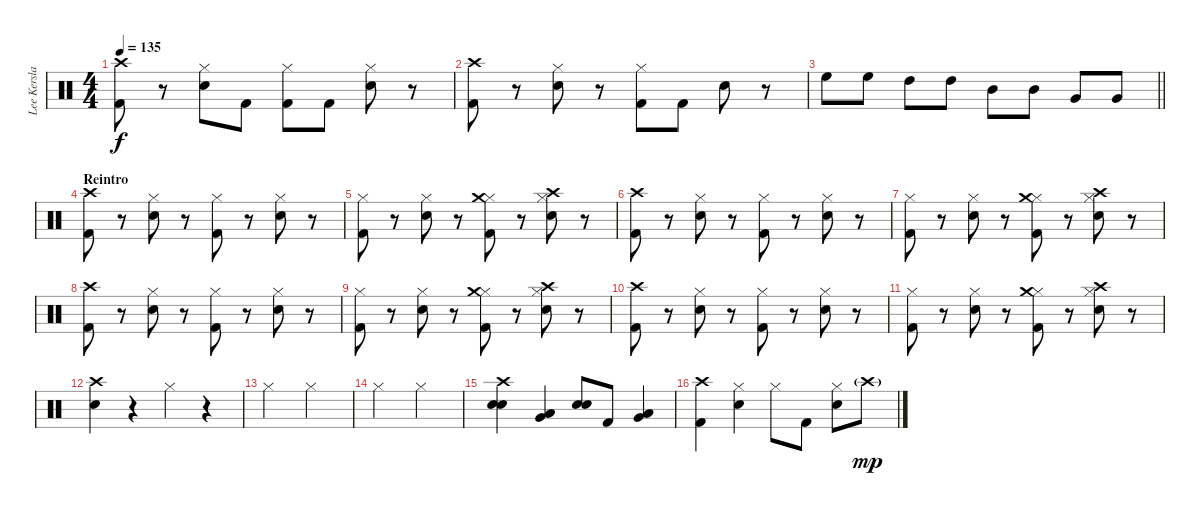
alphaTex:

\track ("Lee Kerslake" "Lee Kersla") {instrument percussion}
\staff {score}
\articulation defaults
\ts (4 4)
\tempo 135
\clef neutral
\ks c
("Kick (hit) 2" "Crash high (hit)").8{dy f} r.8 ("Hi-Hat (closed)" "Snare (hit) 2").8 "Kick (hit) 2".8 ("Hi-Hat (closed)" "Kick (hit) 2").8 "Kick (hit) 2".8 ("Hi-Hat (closed)" "Snare (hit) 2").8 r.8 |
("Kick (hit) 2" "Crash high (hit)").8 r.8 ("Hi-Hat (closed)" "Snare (hit) 2").8 r.8 ("Hi-Hat (closed)" "Kick (hit) 2").8 "Kick (hit) 2".8 "Snare (hit) 2".8 r.8 |
\barLineRight lightlight "High Floor Tom (hit)".8 "High Floor Tom (hit)".8 "High Tom (hit)".8 "High Tom (hit)".8 "Mid Tom (hit)".8 "Mid Tom (hit)".8 "Very Low Tom (hit)".8 "Very Low Tom (hit)".8
|
\section ("" "Reintro")
("Crash high (hit)" "Kick (hit) 2").8 r.8 ("Hi-Hat (closed)" "Snare (hit) 2").8 r.8 ("Hi-Hat (closed)" "Kick (hit) 2").8 r.8 ("Hi-Hat (closed)" "Snare (hit) 2").8 r.8 |
("Hi-Hat (closed)" "Kick (hit) 2").8 r.8 ("Hi-Hat (closed)" "Snare (hit) 2").8 r.8 ("Hi-Hat (closed)" "Kick (hit) 2" "Crash medium (hit)").8 r.8 ("Hi-Hat (closed)" "Snare (hit) 2" "Crash high (hit)").8 r.8 |
("Crash high (hit)" "Kick (hit) 2").8 r.8 ("Hi-Hat (closed)" "Snare (hit) 2").8 r.8 ("Hi-Hat (closed)" "Kick (hit) 2").8 r.8 ("Hi-Hat (closed)" "Snare (hit) 2").8 r.8 |
("Hi-Hat (closed)" "Kick (hit) 2").8 r.8 ("Hi-Hat (closed)" "Snare (hit) 2").8 r.8 ("Hi-Hat (closed)" "Kick (hit) 2" "Crash medium (hit)").8 r.8 ("Hi-Hat (closed)" "Snare (hit) 2" "Crash high (hit)").8 r.8 |
("Crash high (hit)" "Kick (hit) 2").8 r.8 ("Hi-Hat (closed)" "Snare (hit) 2").8 r.8 ("Hi-Hat (closed)" "Kick (hit) 2").8 r.8 ("Hi-Hat (closed)" "Snare (hit) 2").8 r.8 |
("Hi-Hat (closed)" "Kick (hit) 2").8 r.8 ("Hi-Hat (closed)" "Snare (hit) 2").8 r.8 ("Hi-Hat (closed)" "Kick (hit) 2" "Crash medium (hit)").8 r.8 ("Hi-Hat (closed)" "Snare (hit) 2" "Crash high (hit)").8 r.8 |
("Crash high (hit)" "Kick (hit) 2").8 r.8 ("Hi-Hat (closed)" "Snare (hit) 2").8 r.8 ("Hi-Hat (closed)" "Kick (hit) 2").8 r.8 ("Hi-Hat (closed)" "Snare (hit) 2").8 r.8 |
("Hi-Hat (closed)" "Kick (hit) 2").8 r.8 ("Hi-Hat (closed)" "Snare (hit) 2").8 r.8 ("Hi-Hat (closed)" "Kick (hit) 2" "Crash medium (hit)").8 r.8 ("Hi-Hat (closed)" "Snare (hit) 2" "Crash high (hit)").8 r.8 |
("Crash high (hit)" "Snare (hit) 2").4 r.4 "Hi-Hat (closed)".4 r.4 |
"Hi-Hat (closed)".2 "Hi-Hat (closed)".2 |
"Hi-Hat (closed)".2 "Hi-Hat (closed)".2 |
("Crash high (hit)" "Electric Snare (hit)" "Snare (hit) 2").4{bd 240} ("Low Floor Tom (hit)" "Very Low Tom (hit)").4{bd 240} ("Electric Snare (hit)" "Snare (hit) 2").8{bd 240} "Kick (hit) 2".8 ("Low Floor Tom (hit)" "Very Low Tom (hit)").4{bd 240} |
("Crash high (hit)" "Kick (hit) 2").4 ("Hi-Hat (closed)" "Electric Snare (hit)").4 "Hi-Hat (closed)".8 "Kick (hit) 2".8 ("Hi-Hat (closed)" "Electric Snare (hit)").8 "Crash high (hit)"{g}.8{dy mp}
